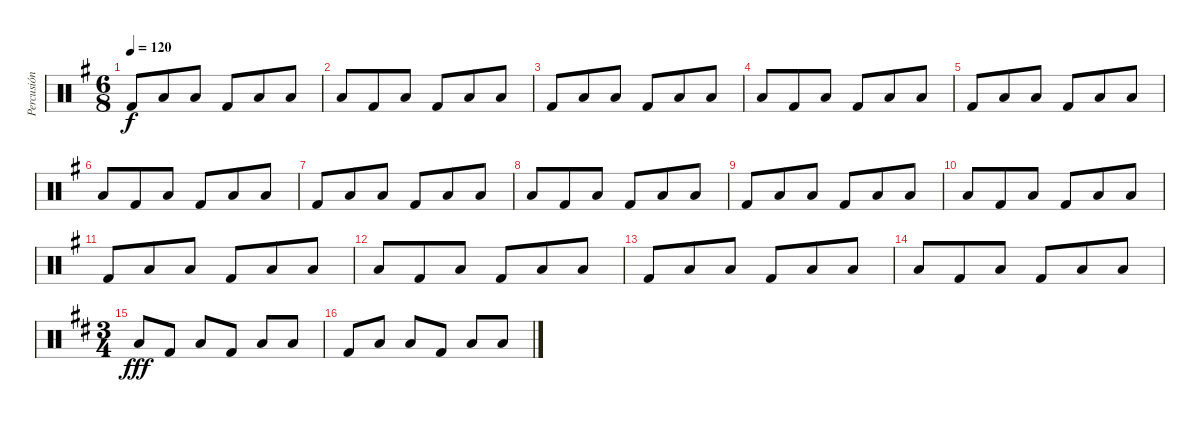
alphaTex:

\track ("Percusión" "Percusión") {instrument percussion}
\staff {score}
\articulation defaults
\ts (6 8)
\tempo 120
\clef neutral
\ks g "Kick (hit) 2".8{dy f} "Low Tom (hit)".8 "Low Tom (hit)".8 "Kick (hit) 2".8 "Low Tom (hit)".8 "Low Tom (hit)".8
|
"Low Tom (hit)".8 "Kick (hit) 2".8 "Low Tom (hit)".8 "Kick (hit) 2".8 "Low Tom (hit)".8 "Low Tom (hit)".8 |
"Kick (hit) 2".8 "Low Tom (hit)".8 "Low Tom (hit)".8 "Kick (hit) 2".8 "Low Tom (hit)".8 "Low Tom (hit)".8 |
"Low Tom (hit)".8 "Kick (hit) 2".8 "Low Tom (hit)".8 "Kick (hit) 2".8 "Low Tom (hit)".8 "Low Tom (hit)".8 |
"Kick (hit) 2".8 "Low Tom (hit)".8 "Low Tom (hit)".8 "Kick (hit) 2".8 "Low Tom (hit)".8 "Low Tom (hit)".8 |
"Low Tom (hit)".8 "Kick (hit) 2".8 "Low Tom (hit)".8 "Kick (hit) 2".8 "Low Tom (hit)".8 "Low Tom (hit)".8 |
"Kick (hit) 2".8 "Low Tom (hit)".8 "Low Tom (hit)".8 "Kick (hit) 2".8 "Low Tom (hit)".8 "Low Tom (hit)".8 |
"Low Tom (hit)".8 "Kick (hit) 2".8 "Low Tom (hit)".8 "Kick (hit) 2".8 "Low Tom (hit)".8 "Low Tom (hit)".8 |
"Kick (hit) 2".8 "Low Tom (hit)".8 "Low Tom (hit)".8 "Kick (hit) 2".8 "Low Tom (hit)".8 "Low Tom (hit)".8 |
"Low Tom (hit)".8 "Kick (hit) 2".8 "Low Tom (hit)".8 "Kick (hit) 2".8 "Low Tom (hit)".8 "Low Tom (hit)".8 |
"Kick (hit) 2".8 "Low Tom (hit)".8 "Low Tom (hit)".8 "Kick (hit) 2".8 "Low Tom (hit)".8 "Low Tom (hit)".8 |
"Low Tom (hit)".8 "Kick (hit) 2".8 "Low Tom (hit)".8 "Kick (hit) 2".8 "Low Tom (hit)".8 "Low Tom (hit)".8 |
"Kick (hit) 2".8 "Low Tom (hit)".8 "Low Tom (hit)".8 "Kick (hit) 2".8 "Low Tom (hit)".8 "Low Tom (hit)".8 |
"Low Tom (hit)".8 "Kick (hit) 2".8 "Low Tom (hit)".8 "Kick (hit) 2".8 "Low Tom (hit)".8 "Low Tom (hit)".8 |
\ts (3 4)
\ks d "Low Tom (hit)".8{dy fff} "Kick (hit) 2".8 "Low Tom (hit)".8 "Kick (hit) 2".8 "Low Tom (hit)".8 "Low Tom (hit)".8
|
"Kick (hit) 2".8 "Low Tom (hit)".8 "Low Tom (hit)".8 "Kick (hit) 2".8 "Low Tom (hit)".8 "Low Tom (hit)".8
